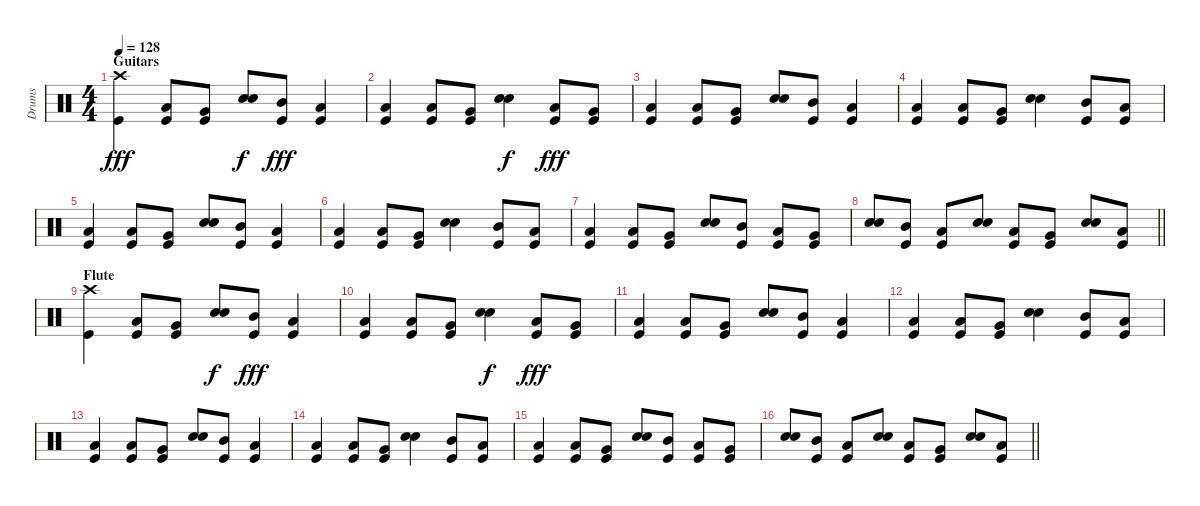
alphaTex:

\track ("Drums" "Drums") {instrument percussion}
\staff {score}
\articulation defaults
\ts (4 4)
\section ("" "Guitars")
\tempo 128
\clef neutral
\ks c
("Crash high (hit)" "Kick (hit)").4{dy fff} ("Low Tom (hit)" "Kick (hit)").8 ("Very Low Tom (hit)" "Kick (hit)").8 ("Snare (hit) 2" "Electric Snare (hit)").8{dy f} ("Mid Tom (hit)" "Kick (hit)").8{dy fff} ("Low Tom (hit)" "Kick (hit)").4 |
("Low Tom (hit)" "Kick (hit)").4 ("Low Tom (hit)" "Kick (hit)").8 ("Very Low Tom (hit)" "Kick (hit)").8 ("Snare (hit) 2" "Electric Snare (hit)").4{dy f} ("Low Tom (hit)" "Kick (hit)").8{dy fff} ("Very Low Tom (hit)" "Kick (hit)").8 |
("Low Tom (hit)" "Kick (hit)").4 ("Low Tom (hit)" "Kick (hit)").8 ("Very Low Tom (hit)" "Kick (hit)").8 ("Snare (hit) 2" "Electric Snare (hit)").8 ("Mid Tom (hit)" "Kick (hit)").8 ("Low Tom (hit)" "Kick (hit)").4 |
("Low Tom (hit)" "Kick (hit)").4 ("Low Tom (hit)" "Kick (hit)").8 ("Very Low Tom (hit)" "Kick (hit)").8 ("Snare (hit) 2" "Electric Snare (hit)").4 ("Mid Tom (hit)" "Kick (hit)").8 ("Low Tom (hit)" "Kick (hit)").8 |
("Low Tom (hit)" "Kick (hit)").4 ("Low Tom (hit)" "Kick (hit)").8 ("Very Low Tom (hit)" "Kick (hit)").8 ("Snare (hit) 2" "Electric Snare (hit)").8 ("Mid Tom (hit)" "Kick (hit)").8 ("Low Tom (hit)" "Kick (hit)").4 |
("Low Tom (hit)" "Kick (hit)").4 ("Low Tom (hit)" "Kick (hit)").8 ("Very Low Tom (hit)" "Kick (hit)").8 ("Snare (hit) 2" "Electric Snare (hit)").4 ("Mid Tom (hit)" "Kick (hit)").8 ("Low Tom (hit)" "Kick (hit)").8 |
("Low Tom (hit)" "Kick (hit)").4 ("Low Tom (hit)" "Kick (hit)").8 ("Very Low Tom (hit)" "Kick (hit)").8 ("Snare (hit) 2" "Electric Snare (hit)").8 ("Mid Tom (hit)" "Kick (hit)").8 ("Low Tom (hit)" "Kick (hit)").8 ("Very Low Tom (hit)" "Kick (hit)").8 |
\barLineRight lightlight
("Snare (hit) 2" "Electric Snare (hit)").8 ("Mid Tom (hit)" "Kick (hit)").8 ("Low Tom (hit)" "Kick (hit)").8 ("Snare (hit) 2" "Electric Snare (hit)").8 ("Low Tom (hit)" "Kick (hit)").8 ("Very Low Tom (hit)" "Kick (hit)").8 ("Snare (hit) 2" "Electric Snare (hit)").8 ("Low Tom (hit)" "Kick (hit)").8 |
\section ("" "Flute")
("Crash high (hit)" "Kick (hit)").4 ("Low Tom (hit)" "Kick (hit)").8 ("Very Low Tom (hit)" "Kick (hit)").8 ("Snare (hit) 2" "Electric Snare (hit)").8{dy f} ("Mid Tom (hit)" "Kick (hit)").8{dy fff} ("Low Tom (hit)" "Kick (hit)").4 |
("Low Tom (hit)" "Kick (hit)").4 ("Low Tom (hit)" "Kick (hit)").8 ("Very Low Tom (hit)" "Kick (hit)").8 ("Snare (hit) 2" "Electric Snare (hit)").4{dy f} ("Low Tom (hit)" "Kick (hit)").8{dy fff} ("Very Low Tom (hit)" "Kick (hit)").8 |
("Low Tom (hit)" "Kick (hit)").4 ("Low Tom (hit)" "Kick (hit)").8 ("Very Low Tom (hit)" "Kick (hit)").8 ("Snare (hit) 2" "Electric Snare (hit)").8 ("Mid Tom (hit)" "Kick (hit)").8 ("Low Tom (hit)" "Kick (hit)").4 |
("Low Tom (hit)" "Kick (hit)").4 ("Low Tom (hit)" "Kick (hit)").8 ("Very Low Tom (hit)" "Kick (hit)").8 ("Snare (hit) 2" "Electric Snare (hit)").4 ("Mid Tom (hit)" "Kick (hit)").8 ("Low Tom (hit)" "Kick (hit)").8 |
("Low Tom (hit)" "Kick (hit)").4 ("Low Tom (hit)" "Kick (hit)").8 ("Very Low Tom (hit)" "Kick (hit)").8 ("Snare (hit) 2" "Electric Snare (hit)").8 ("Mid Tom (hit)" "Kick (hit)").8 ("Low Tom (hit)" "Kick (hit)").4 |
("Low Tom (hit)" "Kick (hit)").4 ("Low Tom (hit)" "Kick (hit)").8 ("Very Low Tom (hit)" "Kick (hit)").8 ("Snare (hit) 2" "Electric Snare (hit)").4 ("Mid Tom (hit)" "Kick (hit)").8 ("Low Tom (hit)" "Kick (hit)").8 |
("Low Tom (hit)" "Kick (hit)").4 ("Low Tom (hit)" "Kick (hit)").8 ("Very Low Tom (hit)" "Kick (hit)").8 ("Snare (hit) 2" "Electric Snare (hit)").8 ("Mid Tom (hit)" "Kick (hit)").8 ("Low Tom (hit)" "Kick (hit)").8 ("Very Low Tom (hit)" "Kick (hit)").8 |
\barLineRight lightlight
("Snare (hit) 2" "Electric Snare (hit)").8 ("Mid Tom (hit)" "Kick (hit)").8 ("Low Tom (hit)" "Kick (hit)").8 ("Snare (hit) 2" "Electric Snare (hit)").8 ("Low Tom (hit)" "Kick (hit)").8 ("Very Low Tom (hit)" "Kick (hit)").8 ("Snare (hit) 2" "Electric Snare (hit)").8 ("Low Tom (hit)" "Kick (hit)").8
